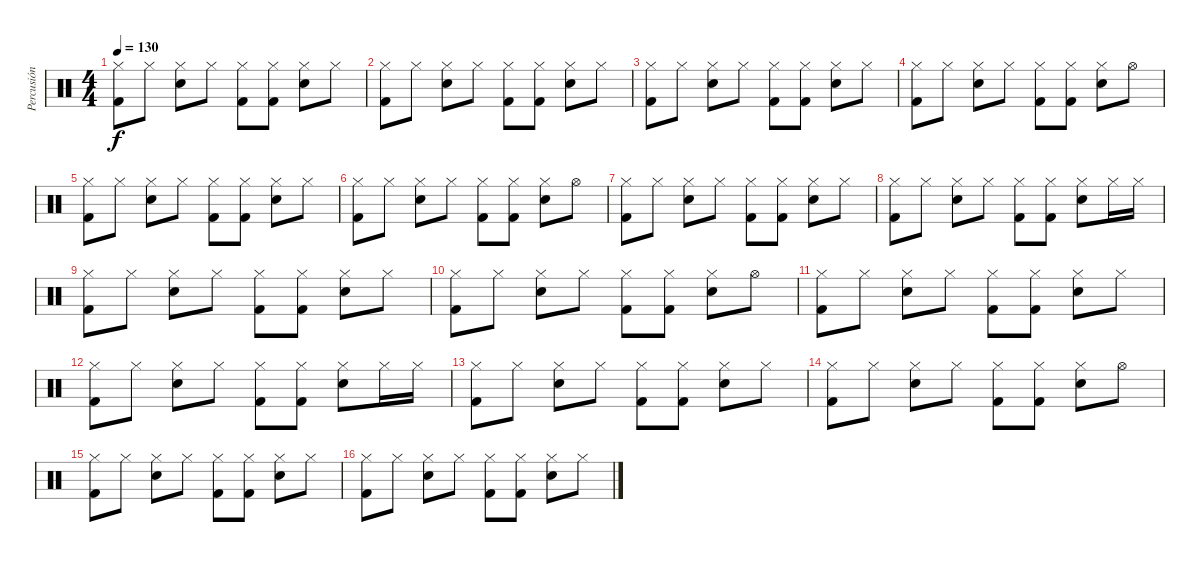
\track ("Percusión" "Percusión") {instrument percussion}
\staff {score}
\articulation defaults
\ts (4 4)
\tempo 130
\clef neutral
\ks c
("Hi-Hat (closed)" "Kick (hit) 2").8{dy f} "Hi-Hat (closed)".8 ("Hi-Hat (closed)" "Electric Snare (hit)").8 "Hi-Hat (closed)".8 ("Hi-Hat (closed)" "Kick (hit) 2").8 ("Hi-Hat (closed)" "Kick (hit) 2").8 ("Hi-Hat (closed)" "Electric Snare (hit)").8 "Hi-Hat (closed)".8 |
("Hi-Hat (closed)" "Kick (hit) 2").8 "Hi-Hat (closed)".8 ("Hi-Hat (closed)" "Electric Snare (hit)").8 "Hi-Hat (closed)".8 ("Hi-Hat (closed)" "Kick (hit) 2").8 ("Hi-Hat (closed)" "Kick (hit) 2").8 ("Hi-Hat (closed)" "Electric Snare (hit)").8 "Hi-Hat (closed)".8 |
("Hi-Hat (closed)" "Kick (hit) 2").8 "Hi-Hat (closed)".8 ("Hi-Hat (closed)" "Electric Snare (hit)").8 "Hi-Hat (closed)".8 ("Hi-Hat (closed)" "Kick (hit) 2").8 ("Hi-Hat (closed)" "Kick (hit) 2").8 ("Hi-Hat (closed)" "Electric Snare (hit)").8 "Hi-Hat (closed)".8 |
("Hi-Hat (closed)" "Kick (hit) 2").8 "Hi-Hat (closed)".8 ("Hi-Hat (closed)" "Electric Snare (hit)").8 "Hi-Hat (closed)".8 ("Hi-Hat (closed)" "Kick (hit) 2").8 ("Hi-Hat (closed)" "Kick (hit) 2").8 ("Hi-Hat (closed)" "Electric Snare (hit)").8 "Hi-Hat (open)".8 |
("Hi-Hat (closed)" "Kick (hit) 2").8 "Hi-Hat (closed)".8 ("Hi-Hat (closed)" "Electric Snare (hit)").8 "Hi-Hat (closed)".8 ("Hi-Hat (closed)" "Kick (hit) 2").8 ("Hi-Hat (closed)" "Kick (hit) 2").8 ("Hi-Hat (closed)" "Electric Snare (hit)").8 "Hi-Hat (closed)".8 |
("Hi-Hat (closed)" "Kick (hit) 2").8 "Hi-Hat (closed)".8 ("Hi-Hat (closed)" "Electric Snare (hit)").8 "Hi-Hat (closed)".8 ("Hi-Hat (closed)" "Kick (hit) 2").8 ("Hi-Hat (closed)" "Kick (hit) 2").8 ("Hi-Hat (closed)" "Electric Snare (hit)").8 "Hi-Hat (open)".8 |
("Hi-Hat (closed)" "Kick (hit) 2").8 "Hi-Hat (closed)".8 ("Hi-Hat (closed)" "Electric Snare (hit)").8 "Hi-Hat (closed)".8 ("Hi-Hat (closed)" "Kick (hit) 2").8 ("Hi-Hat (closed)" "Kick (hit) 2").8 ("Hi-Hat (closed)" "Electric Snare (hit)").8 "Hi-Hat (closed)".8 |
("Hi-Hat (closed)" "Kick (hit) 2").8 "Hi-Hat (closed)".8 ("Hi-Hat (closed)" "Electric Snare (hit)").8 "Hi-Hat (closed)".8 ("Hi-Hat (closed)" "Kick (hit) 2").8 ("Hi-Hat (closed)" "Kick (hit) 2").8 ("Hi-Hat (closed)" "Electric Snare (hit)").8 "Hi-Hat (closed)".16 "Hi-Hat (closed)".16 |
("Hi-Hat (closed)" "Kick (hit) 2").8 "Hi-Hat (closed)".8 ("Hi-Hat (closed)" "Electric Snare (hit)").8 "Hi-Hat (closed)".8 ("Hi-Hat (closed)" "Kick (hit) 2").8 ("Hi-Hat (closed)" "Kick (hit) 2").8 ("Hi-Hat (closed)" "Electric Snare (hit)").8 "Hi-Hat (closed)".8 |
("Hi-Hat (closed)" "Kick (hit) 2").8 "Hi-Hat (closed)".8 ("Hi-Hat (closed)" "Electric Snare (hit)").8 "Hi-Hat (closed)".8 ("Hi-Hat (closed)" "Kick (hit) 2").8 ("Hi-Hat (closed)" "Kick (hit) 2").8 ("Hi-Hat (closed)" "Electric Snare (hit)").8 "Hi-Hat (open)".8 |
("Hi-Hat (closed)" "Kick (hit) 2").8 "Hi-Hat (closed)".8 ("Hi-Hat (closed)" "Electric Snare (hit)").8 "Hi-Hat (closed)".8 ("Hi-Hat (closed)" "Kick (hit) 2").8 ("Hi-Hat (closed)" "Kick (hit) 2").8 ("Hi-Hat (closed)" "Electric Snare (hit)").8 "Hi-Hat (closed)".8 |
("Hi-Hat (closed)" "Kick (hit) 2").8 "Hi-Hat (closed)".8 ("Hi-Hat (closed)" "Electric Snare (hit)").8 "Hi-Hat (closed)".8 ("Hi-Hat (closed)" "Kick (hit) 2").8 ("Hi-Hat (closed)" "Kick (hit) 2").8 ("Hi-Hat (closed)" "Electric Snare (hit)").8 "Hi-Hat (closed)".16 "Hi-Hat (closed)".16 |
("Hi-Hat (closed)" "Kick (hit) 2").8 "Hi-Hat (closed)".8 ("Hi-Hat (closed)" "Electric Snare (hit)").8 "Hi-Hat (closed)".8 ("Hi-Hat (closed)" "Kick (hit) 2").8 ("Hi-Hat (closed)" "Kick (hit) 2").8 ("Hi-Hat (closed)" "Electric Snare (hit)").8 "Hi-Hat (closed)".8 |
("Hi-Hat (closed)" "Kick (hit) 2").8 "Hi-Hat (closed)".8 ("Hi-Hat (closed)" "Electric Snare (hit)").8 "Hi-Hat (closed)".8 ("Hi-Hat (closed)" "Kick (hit) 2").8 ("Hi-Hat (closed)" "Kick (hit) 2").8 ("Hi-Hat (closed)" "Electric Snare (hit)").8 "Hi-Hat (open)".8 |
("Hi-Hat (closed)" "Kick (hit) 2").8 "Hi-Hat (closed)".8 ("Hi-Hat (closed)" "Electric Snare (hit)").8 "Hi-Hat (closed)".8 ("Hi-Hat (closed)" "Kick (hit) 2").8 ("Hi-Hat (closed)" "Kick (hit) 2").8 ("Hi-Hat (closed)" "Electric Snare (hit)").8 "Hi-Hat (closed)".8 |
("Hi-Hat (closed)" "Kick (hit) 2").8 "Hi-Hat (closed)".8 ("Hi-Hat (closed)" "Electric Snare (hit)").8 "Hi-Hat (closed)".8 ("Hi-Hat (closed)" "Kick (hit) 2").8 ("Hi-Hat (closed)" "Kick (hit) 2").8 ("Hi-Hat (closed)" "Electric Snare (hit)").8 "Hi-Hat (closed)".8
